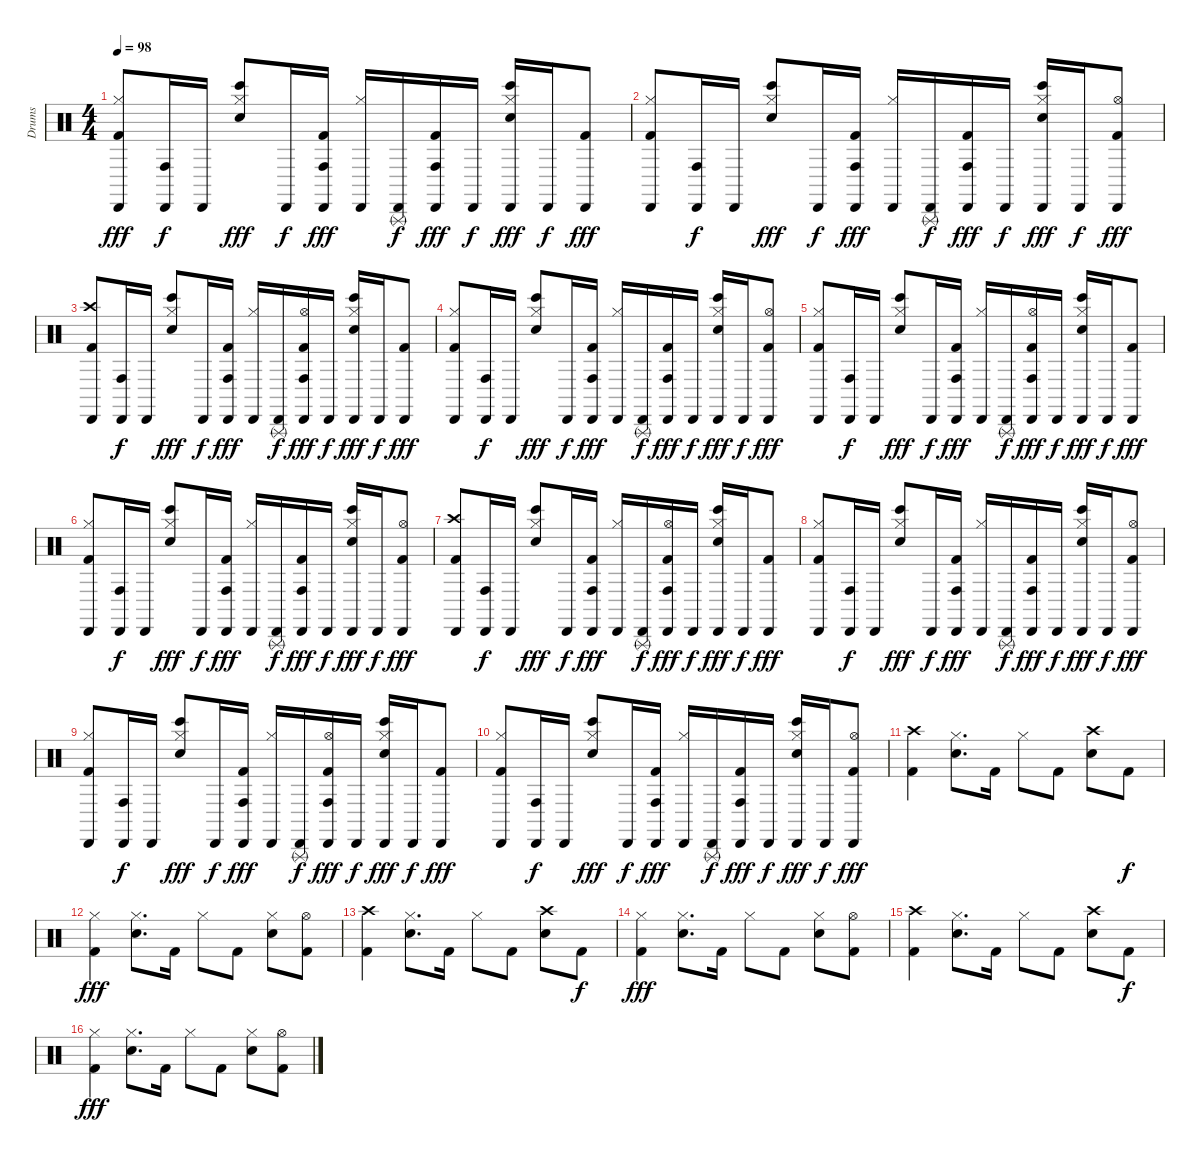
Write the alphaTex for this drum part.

\track ("Drums" "Drums") {instrument percussion}
\staff {score}
\articulation defaults
\ts (4 4)
\tempo 98
\clef neutral
\ks c
("Kick (hit) 2" "Cabasa (hit)" "Hi-Hat (closed)").8{dy fff} ("Conga high (hit)" "Cabasa (hit)").16{dy f} "Cabasa (hit)".16 ("Bongo High (hit)" "Snare (hit) 2" "Hi-Hat (closed)").8{dy fff} "Cabasa (hit)".16{dy f} ("Conga high (hit)" "Kick (hit) 2" "Cabasa (hit)").16{dy fff} ("Hi-Hat (closed)" "Cabasa (hit)").16 ("Triangle (rnute)" "Cabasa (hit)").16{dy f} ("Conga high (hit)" "Kick (hit) 2" "Cabasa (hit)").16{dy fff} "Cabasa (hit)".16{dy f} ("Bongo High (hit)" "Snare (hit) 2" "Hi-Hat (closed)" "Cabasa (hit)").16{dy fff} "Cabasa (hit)".16{dy f} ("Kick (hit) 2" "Cabasa (hit)").8{dy fff} |
("Kick (hit) 2" "Hi-Hat (closed)" "Cabasa (hit)").8 ("Conga high (hit)" "Cabasa (hit)").16{dy f} "Cabasa (hit)".16 ("Bongo High (hit)" "Snare (hit) 2" "Hi-Hat (closed)").8{dy fff} "Cabasa (hit)".16{dy f} ("Conga high (hit)" "Kick (hit) 2" "Cabasa (hit)").16{dy fff} ("Hi-Hat (closed)" "Cabasa (hit)").16 ("Triangle (rnute)" "Cabasa (hit)").16{dy f} ("Conga high (hit)" "Kick (hit) 2" "Cabasa (hit)").16{dy fff} "Cabasa (hit)".16{dy f} ("Bongo High (hit)" "Snare (hit) 2" "Hi-Hat (closed)" "Cabasa (hit)").16{dy fff} "Cabasa (hit)".16{dy f} ("Kick (hit) 2" "Hi-Hat (open)" "Cabasa (hit)").8{dy fff} |
("Kick (hit) 2" "Crash high (hit)" "Cabasa (hit)").8 ("Conga high (hit)" "Cabasa (hit)").16{dy f} "Cabasa (hit)".16 ("Bongo High (hit)" "Snare (hit) 2" "Hi-Hat (closed)").8{dy fff} "Cabasa (hit)".16{dy f} ("Conga high (hit)" "Kick (hit) 2" "Cabasa (hit)").16{dy fff} ("Hi-Hat (closed)" "Cabasa (hit)").16 ("Triangle (rnute)" "Cabasa (hit)").16{dy f} ("Conga high (hit)" "Kick (hit) 2" "Cabasa (hit)" "Hi-Hat (open)").16{dy fff} "Cabasa (hit)".16{dy f} ("Bongo High (hit)" "Snare (hit) 2" "Hi-Hat (closed)" "Cabasa (hit)").16{dy fff} "Cabasa (hit)".16{dy f} ("Kick (hit) 2" "Cabasa (hit)").8{dy fff} |
("Kick (hit) 2" "Hi-Hat (closed)" "Cabasa (hit)").8 ("Conga high (hit)" "Cabasa (hit)").16{dy f} "Cabasa (hit)".16 ("Bongo High (hit)" "Snare (hit) 2" "Hi-Hat (closed)").8{dy fff} "Cabasa (hit)".16{dy f} ("Conga high (hit)" "Kick (hit) 2" "Cabasa (hit)").16{dy fff} ("Hi-Hat (closed)" "Cabasa (hit)").16 ("Triangle (rnute)" "Cabasa (hit)").16{dy f} ("Conga high (hit)" "Kick (hit) 2" "Cabasa (hit)").16{dy fff} "Cabasa (hit)".16{dy f} ("Bongo High (hit)" "Snare (hit) 2" "Hi-Hat (closed)" "Cabasa (hit)").16{dy fff} "Cabasa (hit)".16{dy f} ("Kick (hit) 2" "Hi-Hat (open)" "Cabasa (hit)").8{dy fff} |
("Kick (hit) 2" "Cabasa (hit)" "Hi-Hat (closed)").8 ("Conga high (hit)" "Cabasa (hit)").16{dy f} "Cabasa (hit)".16 ("Bongo High (hit)" "Snare (hit) 2" "Hi-Hat (closed)").8{dy fff} "Cabasa (hit)".16{dy f} ("Conga high (hit)" "Kick (hit) 2" "Cabasa (hit)").16{dy fff} ("Hi-Hat (closed)" "Cabasa (hit)").16 ("Triangle (rnute)" "Cabasa (hit)").16{dy f} ("Conga high (hit)" "Kick (hit) 2" "Cabasa (hit)" "Hi-Hat (open)").16{dy fff} "Cabasa (hit)".16{dy f} ("Bongo High (hit)" "Snare (hit) 2" "Hi-Hat (closed)" "Cabasa (hit)").16{dy fff} "Cabasa (hit)".16{dy f} ("Kick (hit) 2" "Cabasa (hit)").8{dy fff} |
("Kick (hit) 2" "Hi-Hat (closed)" "Cabasa (hit)").8 ("Conga high (hit)" "Cabasa (hit)").16{dy f} "Cabasa (hit)".16 ("Bongo High (hit)" "Snare (hit) 2" "Hi-Hat (closed)").8{dy fff} "Cabasa (hit)".16{dy f} ("Conga high (hit)" "Kick (hit) 2" "Cabasa (hit)").16{dy fff} ("Hi-Hat (closed)" "Cabasa (hit)").16 ("Triangle (rnute)" "Cabasa (hit)").16{dy f} ("Conga high (hit)" "Kick (hit) 2" "Cabasa (hit)").16{dy fff} "Cabasa (hit)".16{dy f} ("Bongo High (hit)" "Snare (hit) 2" "Hi-Hat (closed)" "Cabasa (hit)").16{dy fff} "Cabasa (hit)".16{dy f} ("Kick (hit) 2" "Hi-Hat (open)" "Cabasa (hit)").8{dy fff} |
("Kick (hit) 2" "Crash high (hit)" "Cabasa (hit)").8 ("Conga high (hit)" "Cabasa (hit)").16{dy f} "Cabasa (hit)".16 ("Bongo High (hit)" "Snare (hit) 2" "Hi-Hat (closed)").8{dy fff} "Cabasa (hit)".16{dy f} ("Conga high (hit)" "Kick (hit) 2" "Cabasa (hit)").16{dy fff} ("Hi-Hat (closed)" "Cabasa (hit)").16 ("Triangle (rnute)" "Cabasa (hit)").16{dy f} ("Conga high (hit)" "Kick (hit) 2" "Cabasa (hit)" "Hi-Hat (open)").16{dy fff} "Cabasa (hit)".16{dy f} ("Bongo High (hit)" "Snare (hit) 2" "Hi-Hat (closed)" "Cabasa (hit)").16{dy fff} "Cabasa (hit)".16{dy f} ("Kick (hit) 2" "Cabasa (hit)").8{dy fff} |
("Kick (hit) 2" "Hi-Hat (closed)" "Cabasa (hit)").8 ("Conga high (hit)" "Cabasa (hit)").16{dy f} "Cabasa (hit)".16 ("Bongo High (hit)" "Snare (hit) 2" "Hi-Hat (closed)").8{dy fff} "Cabasa (hit)".16{dy f} ("Conga high (hit)" "Kick (hit) 2" "Cabasa (hit)").16{dy fff} ("Hi-Hat (closed)" "Cabasa (hit)").16 ("Triangle (rnute)" "Cabasa (hit)").16{dy f} ("Conga high (hit)" "Kick (hit) 2" "Cabasa (hit)").16{dy fff} "Cabasa (hit)".16{dy f} ("Bongo High (hit)" "Snare (hit) 2" "Hi-Hat (closed)" "Cabasa (hit)").16{dy fff} "Cabasa (hit)".16{dy f} ("Kick (hit) 2" "Hi-Hat (open)" "Cabasa (hit)").8{dy fff} |
("Kick (hit) 2" "Cabasa (hit)" "Hi-Hat (closed)").8 ("Conga high (hit)" "Cabasa (hit)").16{dy f} "Cabasa (hit)".16 ("Bongo High (hit)" "Snare (hit) 2" "Hi-Hat (closed)").8{dy fff} "Cabasa (hit)".16{dy f} ("Conga high (hit)" "Kick (hit) 2" "Cabasa (hit)").16{dy fff} ("Hi-Hat (closed)" "Cabasa (hit)").16 ("Triangle (rnute)" "Cabasa (hit)").16{dy f} ("Conga high (hit)" "Kick (hit) 2" "Cabasa (hit)" "Hi-Hat (open)").16{dy fff} "Cabasa (hit)".16{dy f} ("Bongo High (hit)" "Snare (hit) 2" "Hi-Hat (closed)" "Cabasa (hit)").16{dy fff} "Cabasa (hit)".16{dy f} ("Kick (hit) 2" "Cabasa (hit)").8{dy fff} |
("Kick (hit) 2" "Hi-Hat (closed)" "Cabasa (hit)").8 ("Conga high (hit)" "Cabasa (hit)").16{dy f} "Cabasa (hit)".16 ("Bongo High (hit)" "Snare (hit) 2" "Hi-Hat (closed)").8{dy fff} "Cabasa (hit)".16{dy f} ("Conga high (hit)" "Kick (hit) 2" "Cabasa (hit)").16{dy fff} ("Hi-Hat (closed)" "Cabasa (hit)").16 ("Triangle (rnute)" "Cabasa (hit)").16{dy f} ("Conga high (hit)" "Kick (hit) 2" "Cabasa (hit)").16{dy fff} "Cabasa (hit)".16{dy f} ("Bongo High (hit)" "Snare (hit) 2" "Hi-Hat (closed)" "Cabasa (hit)").16{dy fff} "Cabasa (hit)".16{dy f} ("Kick (hit) 2" "Hi-Hat (open)" "Cabasa (hit)").8{dy fff} |
("Kick (hit) 2" "Crash high (hit)").4 ("Snare (hit) 2" "Hi-Hat (closed)").8{d} "Kick (hit) 2".16 "Hi-Hat (closed)".8 "Kick (hit) 2".8 ("Snare (hit) 2" "Crash high (hit)").8 "Kick (hit) 2".8{dy f} |
("Kick (hit) 2" "Hi-Hat (closed)").4{dy fff} ("Snare (hit) 2" "Hi-Hat (closed)").8{d} "Kick (hit) 2".16 "Hi-Hat (closed)".8 "Kick (hit) 2".8 ("Snare (hit) 2" "Hi-Hat (closed)").8 ("Kick (hit) 2" "Hi-Hat (open)").8 |
("Kick (hit) 2" "Crash high (hit)").4 ("Snare (hit) 2" "Hi-Hat (closed)").8{d} "Kick (hit) 2".16 "Hi-Hat (closed)".8 "Kick (hit) 2".8 ("Snare (hit) 2" "Crash high (hit)").8 "Kick (hit) 2".8{dy f} |
("Kick (hit) 2" "Hi-Hat (closed)").4{dy fff} ("Snare (hit) 2" "Hi-Hat (closed)").8{d} "Kick (hit) 2".16 "Hi-Hat (closed)".8 "Kick (hit) 2".8 ("Snare (hit) 2" "Hi-Hat (closed)").8 ("Kick (hit) 2" "Hi-Hat (open)").8 |
("Kick (hit) 2" "Crash high (hit)").4 ("Snare (hit) 2" "Hi-Hat (closed)").8{d} "Kick (hit) 2".16 "Hi-Hat (closed)".8 "Kick (hit) 2".8 ("Snare (hit) 2" "Crash high (hit)").8 "Kick (hit) 2".8{dy f} |
("Kick (hit) 2" "Hi-Hat (closed)").4{dy fff} ("Snare (hit) 2" "Hi-Hat (closed)").8{d} "Kick (hit) 2".16 "Hi-Hat (closed)".8 "Kick (hit) 2".8 ("Snare (hit) 2" "Hi-Hat (closed)").8 ("Kick (hit) 2" "Hi-Hat (open)").8
